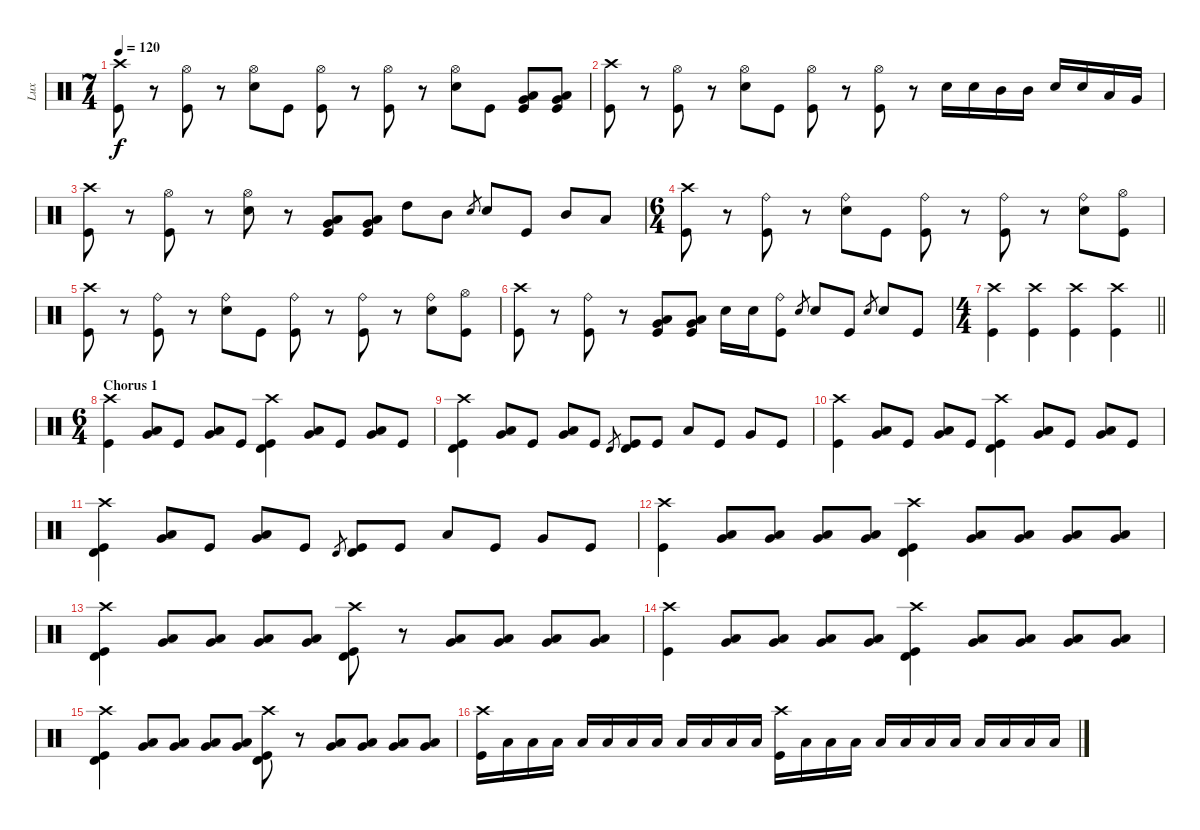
\track ("Lux" "Lux") {solo instrument percussion}
\staff {score}
\articulation defaults
\ts (7 4)
\tempo 120
\clef neutral
\ks c
("Crash high (hit)" "Kick (hit)").8{dy f} r.8 ("Hi-Hat (open)" "Kick (hit)").8 r.8 ("Hi-Hat (open)" "Snare (hit) 2").8 "Kick (hit)".8 ("Hi-Hat (open)" "Kick (hit)").8 r.8 ("Hi-Hat (open)" "Kick (hit)").8 r.8 ("Hi-Hat (open)" "Snare (hit) 2").8 "Kick (hit)".8 ("Very Low Tom (hit)" "Low Floor Tom (hit)" "Kick (hit)").8 ("Very Low Tom (hit)" "Low Floor Tom (hit)" "Kick (hit)").8 |
("Crash high (hit)" "Kick (hit)").8 r.8 ("Hi-Hat (open)" "Kick (hit)").8 r.8 ("Hi-Hat (open)" "Snare (hit) 2").8 "Kick (hit)".8 ("Hi-Hat (open)" "Kick (hit)").8 r.8 ("Hi-Hat (open)" "Kick (hit)").8 r.8 "Snare (hit) 2".16 "Snare (hit) 2".16 "Mid Tom (hit)".16 "Mid Tom (hit)".16 "Snare (hit) 2".16 "Snare (hit) 2".16 "Low Tom (hit)".16 "Very Low Tom (hit)".16 |
("Crash high (hit)" "Kick (hit)").8 r.8 ("Hi-Hat (open)" "Kick (hit)").8 r.8 ("Hi-Hat (open)" "Snare (hit) 2").8 r.8 ("Very Low Tom (hit)" "Low Tom (hit)" "Kick (hit)").8 ("Very Low Tom (hit)" "Low Tom (hit)" "Kick (hit)").8 "High Tom (hit)".8 "Mid Tom (hit)".8 "Snare (hit) 2".8{gr} "Snare (hit) 2".8 "Kick (hit)".8 "Mid Tom (hit)".8 "Low Tom (hit)".8 |
\ts (6 4)
("Crash high (hit)" "Kick (hit)").8 r.8 ("Ride (bell)" "Kick (hit)").8 r.8 ("Ride (bell)" "Snare (hit) 2").8 "Kick (hit)".8 ("Ride (bell)" "Kick (hit)").8 r.8 ("Ride (bell)" "Kick (hit)").8 r.8 ("Ride (bell)" "Snare (hit) 2").8 ("Hi-Hat (open)" "Kick (hit)").8 |
("Crash high (hit)" "Kick (hit)").8 r.8 ("Ride (bell)" "Kick (hit)").8 r.8 ("Ride (bell)" "Snare (hit) 2").8 "Kick (hit)".8 ("Ride (bell)" "Kick (hit)").8 r.8 ("Ride (bell)" "Kick (hit)").8 r.8 ("Ride (bell)" "Snare (hit) 2").8 ("Hi-Hat (open)" "Kick (hit)").8 |
("Crash high (hit)" "Kick (hit)").8 r.8 ("Ride (bell)" "Kick (hit)").8 r.8 ("Low Tom (hit)" "Very Low Tom (hit)" "Kick (hit)").8 ("Low Tom (hit)" "Very Low Tom (hit)" "Kick (hit)").8 "Snare (hit) 2".16 "Snare (hit) 2".16 ("Ride (bell)" "Kick (hit)").8 "Snare (hit) 2".8{gr} "Snare (hit) 2".8 "Kick (hit)".8 "Snare (hit) 2".8{gr} "Snare (hit) 2".8 "Kick (hit)".8 |
\ts (4 4)
\barLineRight lightlight
("Crash high (hit)" "Kick (hit)").4 ("Crash high (hit)" "Kick (hit)").4 ("Crash high (hit)" "Kick (hit)").4 ("Crash high (hit)" "Kick (hit)").4 |
\ts (6 4)
\section ("" "Chorus 1")
("Crash high (hit)" "Kick (hit)").4 ("Very Low Tom (hit)" "Low Floor Tom (hit)").8 "Kick (hit)".8 ("Very Low Tom (hit)" "Low Floor Tom (hit)").8 "Kick (hit)".8 ("Crash high (hit)" "Timbale high (hit)" "Kick (hit)").4 ("Very Low Tom (hit)" "Low Floor Tom (hit)").8 "Kick (hit)".8 ("Very Low Tom (hit)" "Low Floor Tom (hit)").8 "Kick (hit)".8 |
("Crash high (hit)" "Timbale high (hit)" "Kick (hit)").4 ("Very Low Tom (hit)" "Low Floor Tom (hit)").8 "Kick (hit)".8 ("Very Low Tom (hit)" "Low Floor Tom (hit)").8 "Kick (hit)".8 "Timbale high (hit)".8{gr} ("Timbale high (hit)" "Kick (hit)").8 "Kick (hit)".8 "Low Tom (hit)".8 "Kick (hit)".8 "Very Low Tom (hit)".8 "Kick (hit)".8 |
("Crash high (hit)" "Kick (hit)").4 ("Very Low Tom (hit)" "Low Floor Tom (hit)").8 "Kick (hit)".8 ("Very Low Tom (hit)" "Low Floor Tom (hit)").8 "Kick (hit)".8 ("Crash high (hit)" "Timbale high (hit)" "Kick (hit)").4 ("Very Low Tom (hit)" "Low Floor Tom (hit)").8 "Kick (hit)".8 ("Very Low Tom (hit)" "Low Floor Tom (hit)").8 "Kick (hit)".8 |
("Crash high (hit)" "Timbale high (hit)" "Kick (hit)").4 ("Very Low Tom (hit)" "Low Floor Tom (hit)").8 "Kick (hit)".8 ("Very Low Tom (hit)" "Low Floor Tom (hit)").8 "Kick (hit)".8 "Timbale high (hit)".8{gr} ("Timbale high (hit)" "Kick (hit)").8 "Kick (hit)".8 "Low Tom (hit)".8 "Kick (hit)".8 "Very Low Tom (hit)".8 "Kick (hit)".8 |
("Crash high (hit)" "Kick (hit)").4 ("Very Low Tom (hit)" "Low Floor Tom (hit)").8 ("Very Low Tom (hit)" "Low Floor Tom (hit)").8 ("Very Low Tom (hit)" "Low Floor Tom (hit)").8 ("Very Low Tom (hit)" "Low Floor Tom (hit)").8 ("Crash high (hit)" "Timbale high (hit)" "Kick (hit)").4 ("Very Low Tom (hit)" "Low Floor Tom (hit)").8 ("Very Low Tom (hit)" "Low Floor Tom (hit)").8 ("Very Low Tom (hit)" "Low Floor Tom (hit)").8 ("Very Low Tom (hit)" "Low Floor Tom (hit)").8 |
("Crash high (hit)" "Timbale high (hit)" "Kick (hit)").4 ("Very Low Tom (hit)" "Low Floor Tom (hit)").8 ("Very Low Tom (hit)" "Low Floor Tom (hit)").8 ("Very Low Tom (hit)" "Low Floor Tom (hit)").8 ("Very Low Tom (hit)" "Low Floor Tom (hit)").8 ("Crash high (hit)" "Timbale high (hit)" "Kick (hit)").8 r.8 ("Very Low Tom (hit)" "Low Floor Tom (hit)").8 ("Very Low Tom (hit)" "Low Floor Tom (hit)").8 ("Very Low Tom (hit)" "Low Floor Tom (hit)").8 ("Very Low Tom (hit)" "Low Floor Tom (hit)").8 |
("Crash high (hit)" "Kick (hit)").4 ("Very Low Tom (hit)" "Low Floor Tom (hit)").8 ("Very Low Tom (hit)" "Low Floor Tom (hit)").8 ("Very Low Tom (hit)" "Low Floor Tom (hit)").8 ("Very Low Tom (hit)" "Low Floor Tom (hit)").8 ("Crash high (hit)" "Timbale high (hit)" "Kick (hit)").4 ("Very Low Tom (hit)" "Low Floor Tom (hit)").8 ("Very Low Tom (hit)" "Low Floor Tom (hit)").8 ("Very Low Tom (hit)" "Low Floor Tom (hit)").8 ("Very Low Tom (hit)" "Low Floor Tom (hit)").8 |
("Crash high (hit)" "Timbale high (hit)" "Kick (hit)").4 ("Very Low Tom (hit)" "Low Floor Tom (hit)").8 ("Very Low Tom (hit)" "Low Floor Tom (hit)").8 ("Very Low Tom (hit)" "Low Floor Tom (hit)").8 ("Very Low Tom (hit)" "Low Floor Tom (hit)").8 ("Crash high (hit)" "Timbale high (hit)" "Kick (hit)").8 r.8 ("Very Low Tom (hit)" "Low Floor Tom (hit)").8 ("Very Low Tom (hit)" "Low Floor Tom (hit)").8 ("Very Low Tom (hit)" "Low Floor Tom (hit)").8 ("Very Low Tom (hit)" "Low Floor Tom (hit)").8 |
("Crash high (hit)" "Kick (hit)").16 "Low Floor Tom (hit)".16 "Low Floor Tom (hit)".16 "Low Floor Tom (hit)".16 "Low Floor Tom (hit)".16 "Low Floor Tom (hit)".16 "Low Floor Tom (hit)".16 "Low Floor Tom (hit)".16 "Low Floor Tom (hit)".16 "Low Floor Tom (hit)".16 "Low Floor Tom (hit)".16 "Low Floor Tom (hit)".16 ("Crash high (hit)" "Kick (hit)").16 "Low Floor Tom (hit)".16 "Low Floor Tom (hit)".16 "Low Floor Tom (hit)".16 "Low Floor Tom (hit)".16 "Low Floor Tom (hit)".16 "Low Floor Tom (hit)".16 "Low Floor Tom (hit)".16 "Low Floor Tom (hit)".16 "Low Floor Tom (hit)".16 "Low Floor Tom (hit)".16 "Low Floor Tom (hit)".16
